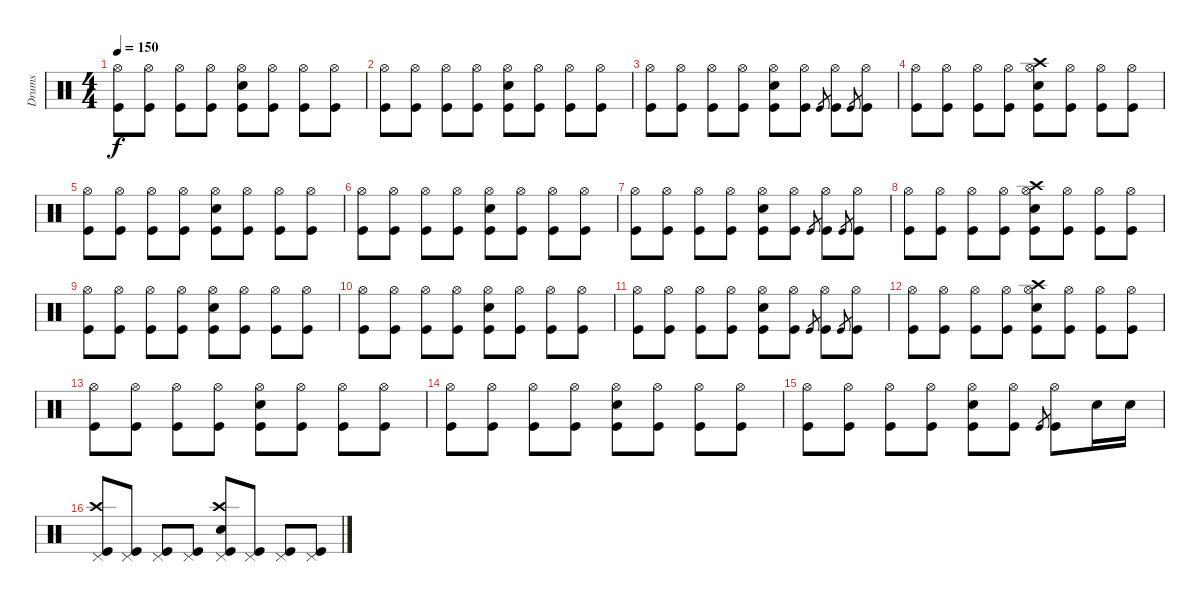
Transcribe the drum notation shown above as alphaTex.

\track ("Drums" "Drums") {instrument percussion}
\staff {score}
\articulation defaults
\ts (4 4)
\tempo 150
\clef neutral
\ks c
("Hi-Hat (open)" "Kick (hit)").8{dy f} ("Hi-Hat (open)" "Kick (hit)").8 ("Hi-Hat (open)" "Kick (hit)").8 ("Hi-Hat (open)" "Kick (hit)").8 ("Hi-Hat (open)" "Snare (hit) 2" "Kick (hit)").8 ("Hi-Hat (open)" "Kick (hit)").8 ("Hi-Hat (open)" "Kick (hit)").8 ("Hi-Hat (open)" "Kick (hit)").8 |
("Hi-Hat (open)" "Kick (hit)").8 ("Hi-Hat (open)" "Kick (hit)").8 ("Hi-Hat (open)" "Kick (hit)").8 ("Hi-Hat (open)" "Kick (hit)").8 ("Hi-Hat (open)" "Snare (hit) 2" "Kick (hit)").8 ("Hi-Hat (open)" "Kick (hit)").8 ("Hi-Hat (open)" "Kick (hit)").8 ("Hi-Hat (open)" "Kick (hit)").8 |
("Hi-Hat (open)" "Kick (hit)").8 ("Hi-Hat (open)" "Kick (hit)").8 ("Hi-Hat (open)" "Kick (hit)").8 ("Hi-Hat (open)" "Kick (hit)").8 ("Hi-Hat (open)" "Snare (hit) 2" "Kick (hit)").8 ("Hi-Hat (open)" "Kick (hit)").8 "Kick (hit)".8{gr} ("Hi-Hat (open)" "Kick (hit)").8 "Kick (hit)".8{gr} ("Hi-Hat (open)" "Kick (hit)").8 |
("Hi-Hat (open)" "Kick (hit)").8 ("Hi-Hat (open)" "Kick (hit)").8 ("Hi-Hat (open)" "Kick (hit)").8 ("Hi-Hat (open)" "Kick (hit)").8 ("Crash high (hit)" "Hi-Hat (open)" "Snare (hit) 2" "Kick (hit)").8 ("Hi-Hat (open)" "Kick (hit)").8 ("Hi-Hat (open)" "Kick (hit)").8 ("Hi-Hat (open)" "Kick (hit)").8 |
("Hi-Hat (open)" "Kick (hit)").8 ("Hi-Hat (open)" "Kick (hit)").8 ("Hi-Hat (open)" "Kick (hit)").8 ("Hi-Hat (open)" "Kick (hit)").8 ("Hi-Hat (open)" "Snare (hit) 2" "Kick (hit)").8 ("Hi-Hat (open)" "Kick (hit)").8 ("Hi-Hat (open)" "Kick (hit)").8 ("Hi-Hat (open)" "Kick (hit)").8 |
("Hi-Hat (open)" "Kick (hit)").8 ("Hi-Hat (open)" "Kick (hit)").8 ("Hi-Hat (open)" "Kick (hit)").8 ("Hi-Hat (open)" "Kick (hit)").8 ("Hi-Hat (open)" "Snare (hit) 2" "Kick (hit)").8 ("Hi-Hat (open)" "Kick (hit)").8 ("Hi-Hat (open)" "Kick (hit)").8 ("Hi-Hat (open)" "Kick (hit)").8 |
("Hi-Hat (open)" "Kick (hit)").8 ("Hi-Hat (open)" "Kick (hit)").8 ("Hi-Hat (open)" "Kick (hit)").8 ("Hi-Hat (open)" "Kick (hit)").8 ("Hi-Hat (open)" "Snare (hit) 2" "Kick (hit)").8 ("Hi-Hat (open)" "Kick (hit)").8 "Kick (hit)".8{gr} ("Hi-Hat (open)" "Kick (hit)").8 "Kick (hit)".8{gr} ("Hi-Hat (open)" "Kick (hit)").8 |
("Hi-Hat (open)" "Kick (hit)").8 ("Hi-Hat (open)" "Kick (hit)").8 ("Hi-Hat (open)" "Kick (hit)").8 ("Hi-Hat (open)" "Kick (hit)").8 ("Crash high (hit)" "Hi-Hat (open)" "Snare (hit) 2" "Kick (hit)").8 ("Hi-Hat (open)" "Kick (hit)").8 ("Hi-Hat (open)" "Kick (hit)").8 ("Hi-Hat (open)" "Kick (hit)").8 |
("Hi-Hat (open)" "Kick (hit)").8 ("Hi-Hat (open)" "Kick (hit)").8 ("Hi-Hat (open)" "Kick (hit)").8 ("Hi-Hat (open)" "Kick (hit)").8 ("Hi-Hat (open)" "Snare (hit) 2" "Kick (hit)").8 ("Hi-Hat (open)" "Kick (hit)").8 ("Hi-Hat (open)" "Kick (hit)").8 ("Hi-Hat (open)" "Kick (hit)").8 |
("Hi-Hat (open)" "Kick (hit)").8 ("Hi-Hat (open)" "Kick (hit)").8 ("Hi-Hat (open)" "Kick (hit)").8 ("Hi-Hat (open)" "Kick (hit)").8 ("Hi-Hat (open)" "Snare (hit) 2" "Kick (hit)").8 ("Hi-Hat (open)" "Kick (hit)").8 ("Hi-Hat (open)" "Kick (hit)").8 ("Hi-Hat (open)" "Kick (hit)").8 |
("Hi-Hat (open)" "Kick (hit)").8 ("Hi-Hat (open)" "Kick (hit)").8 ("Hi-Hat (open)" "Kick (hit)").8 ("Hi-Hat (open)" "Kick (hit)").8 ("Hi-Hat (open)" "Snare (hit) 2" "Kick (hit)").8 ("Hi-Hat (open)" "Kick (hit)").8 "Kick (hit)".8{gr} ("Hi-Hat (open)" "Kick (hit)").8 "Kick (hit)".8{gr} ("Hi-Hat (open)" "Kick (hit)").8 |
("Hi-Hat (open)" "Kick (hit)").8 ("Hi-Hat (open)" "Kick (hit)").8 ("Hi-Hat (open)" "Kick (hit)").8 ("Hi-Hat (open)" "Kick (hit)").8 ("Crash high (hit)" "Hi-Hat (open)" "Snare (hit) 2" "Kick (hit)").8 ("Hi-Hat (open)" "Kick (hit)").8 ("Hi-Hat (open)" "Kick (hit)").8 ("Hi-Hat (open)" "Kick (hit)").8 |
("Hi-Hat (open)" "Kick (hit)").8 ("Hi-Hat (open)" "Kick (hit)").8 ("Hi-Hat (open)" "Kick (hit)").8 ("Hi-Hat (open)" "Kick (hit)").8 ("Hi-Hat (open)" "Snare (hit) 2" "Kick (hit)").8 ("Hi-Hat (open)" "Kick (hit)").8 ("Hi-Hat (open)" "Kick (hit)").8 ("Hi-Hat (open)" "Kick (hit)").8 |
("Hi-Hat (open)" "Kick (hit)").8 ("Hi-Hat (open)" "Kick (hit)").8 ("Hi-Hat (open)" "Kick (hit)").8 ("Hi-Hat (open)" "Kick (hit)").8 ("Hi-Hat (open)" "Snare (hit) 2" "Kick (hit)").8 ("Hi-Hat (open)" "Kick (hit)").8 ("Hi-Hat (open)" "Kick (hit)").8 ("Hi-Hat (open)" "Kick (hit)").8 |
("Hi-Hat (open)" "Kick (hit)").8 ("Hi-Hat (open)" "Kick (hit)").8 ("Hi-Hat (open)" "Kick (hit)").8 ("Hi-Hat (open)" "Kick (hit)").8 ("Hi-Hat (open)" "Snare (hit) 2" "Kick (hit)").8 ("Hi-Hat (open)" "Kick (hit)").8 "Kick (hit)".8{gr} ("Hi-Hat (open)" "Kick (hit)").8 "Snare (hit) 2".16 "Snare (hit) 2".16 |
("Crash high (hit)" "Pedal Hi-Hat (hit)" "Kick (hit)").8 ("Pedal Hi-Hat (hit)" "Kick (hit)").8 ("Pedal Hi-Hat (hit)" "Kick (hit)").8 ("Pedal Hi-Hat (hit)" "Kick (hit)").8 ("Crash high (hit)" "Pedal Hi-Hat (hit)" "Snare (hit) 2" "Kick (hit)").8 ("Pedal Hi-Hat (hit)" "Kick (hit)").8 ("Pedal Hi-Hat (hit)" "Kick (hit)").8 ("Pedal Hi-Hat (hit)" "Kick (hit)").8
